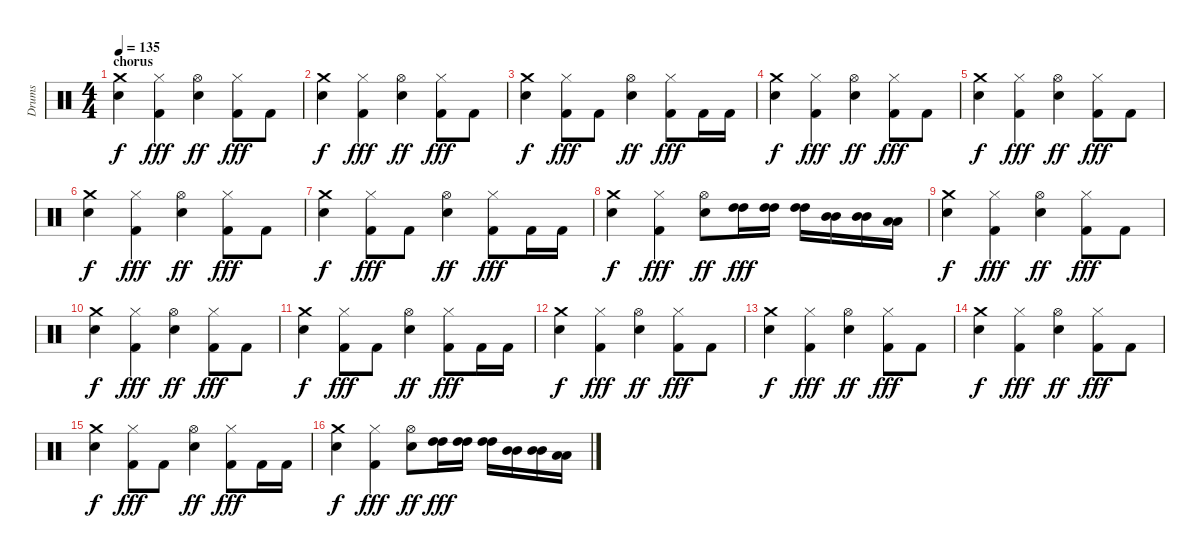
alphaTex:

\track ("Drums" "Drums") {instrument percussion}
\staff {score}
\articulation defaults
\ts (4 4)
\section ("" "chorus")
\tempo 135
\clef neutral
\ks c
("Crash medium (hit)" "Electric Snare (hit)").4{dy f} ("Hi-Hat (closed)" "Kick (hit) 2").4{dy fff} ("Hi-Hat (open)" "Electric Snare (hit)").4{dy ff} ("Hi-Hat (closed)" "Kick (hit) 2").8{dy fff} "Kick (hit) 2".8 |
("Crash medium (hit)" "Electric Snare (hit)").4{dy f} ("Hi-Hat (closed)" "Kick (hit) 2").4{dy fff} ("Hi-Hat (open)" "Electric Snare (hit)").4{dy ff} ("Hi-Hat (closed)" "Kick (hit) 2").8{dy fff} "Kick (hit) 2".8 |
("Crash medium (hit)" "Electric Snare (hit)").4{dy f} ("Hi-Hat (closed)" "Kick (hit) 2").8{dy fff} "Kick (hit) 2".8 ("Hi-Hat (open)" "Electric Snare (hit)").4{dy ff} ("Hi-Hat (closed)" "Kick (hit) 2").8{dy fff} "Kick (hit) 2".16 "Kick (hit) 2".16 |
("Crash medium (hit)" "Electric Snare (hit)").4{dy f} ("Hi-Hat (closed)" "Kick (hit) 2").4{dy fff} ("Hi-Hat (open)" "Electric Snare (hit)").4{dy ff} ("Hi-Hat (closed)" "Kick (hit) 2").8{dy fff} "Kick (hit) 2".8 |
("Crash medium (hit)" "Electric Snare (hit)").4{dy f} ("Hi-Hat (closed)" "Kick (hit) 2").4{dy fff} ("Hi-Hat (open)" "Electric Snare (hit)").4{dy ff} ("Hi-Hat (closed)" "Kick (hit) 2").8{dy fff} "Kick (hit) 2".8 |
("Crash medium (hit)" "Electric Snare (hit)").4{dy f} ("Hi-Hat (closed)" "Kick (hit) 2").4{dy fff} ("Hi-Hat (open)" "Electric Snare (hit)").4{dy ff} ("Hi-Hat (closed)" "Kick (hit) 2").8{dy fff} "Kick (hit) 2".8 |
("Crash medium (hit)" "Electric Snare (hit)").4{dy f} ("Hi-Hat (closed)" "Kick (hit) 2").8{dy fff} "Kick (hit) 2".8 ("Hi-Hat (open)" "Electric Snare (hit)").4{dy ff} ("Hi-Hat (closed)" "Kick (hit) 2").8{dy fff} "Kick (hit) 2".16 "Kick (hit) 2".16 |
("Crash medium (hit)" "Electric Snare (hit)").4{dy f} ("Hi-Hat (closed)" "Kick (hit) 2").4{dy fff} ("Hi-Hat (open)" "Electric Snare (hit)").8{dy ff} ("High Tom (hit)" "High Tom (hit)").16{dy fff} ("High Tom (hit)" "High Tom (hit)").16 ("High Tom (hit)" "High Tom (hit)").16 ("Mid Tom (hit)" "Mid Tom (hit)").16 ("Mid Tom (hit)" "Mid Tom (hit)").16 ("Low Tom (hit)" "Low Tom (hit)").16 |
("Crash medium (hit)" "Electric Snare (hit)").4{dy f} ("Hi-Hat (closed)" "Kick (hit) 2").4{dy fff} ("Hi-Hat (open)" "Electric Snare (hit)").4{dy ff} ("Hi-Hat (closed)" "Kick (hit) 2").8{dy fff} "Kick (hit) 2".8 |
("Crash medium (hit)" "Electric Snare (hit)").4{dy f} ("Hi-Hat (closed)" "Kick (hit) 2").4{dy fff} ("Hi-Hat (open)" "Electric Snare (hit)").4{dy ff} ("Hi-Hat (closed)" "Kick (hit) 2").8{dy fff} "Kick (hit) 2".8 |
("Crash medium (hit)" "Electric Snare (hit)").4{dy f} ("Hi-Hat (closed)" "Kick (hit) 2").8{dy fff} "Kick (hit) 2".8 ("Hi-Hat (open)" "Electric Snare (hit)").4{dy ff} ("Hi-Hat (closed)" "Kick (hit) 2").8{dy fff} "Kick (hit) 2".16 "Kick (hit) 2".16 |
("Crash medium (hit)" "Electric Snare (hit)").4{dy f} ("Hi-Hat (closed)" "Kick (hit) 2").4{dy fff} ("Hi-Hat (open)" "Electric Snare (hit)").4{dy ff} ("Hi-Hat (closed)" "Kick (hit) 2").8{dy fff} "Kick (hit) 2".8 |
("Crash medium (hit)" "Electric Snare (hit)").4{dy f} ("Hi-Hat (closed)" "Kick (hit) 2").4{dy fff} ("Hi-Hat (open)" "Electric Snare (hit)").4{dy ff} ("Hi-Hat (closed)" "Kick (hit) 2").8{dy fff} "Kick (hit) 2".8 |
("Crash medium (hit)" "Electric Snare (hit)").4{dy f} ("Hi-Hat (closed)" "Kick (hit) 2").4{dy fff} ("Hi-Hat (open)" "Electric Snare (hit)").4{dy ff} ("Hi-Hat (closed)" "Kick (hit) 2").8{dy fff} "Kick (hit) 2".8 |
("Crash medium (hit)" "Electric Snare (hit)").4{dy f} ("Hi-Hat (closed)" "Kick (hit) 2").8{dy fff} "Kick (hit) 2".8 ("Hi-Hat (open)" "Electric Snare (hit)").4{dy ff} ("Hi-Hat (closed)" "Kick (hit) 2").8{dy fff} "Kick (hit) 2".16 "Kick (hit) 2".16 |
("Crash medium (hit)" "Electric Snare (hit)").4{dy f} ("Hi-Hat (closed)" "Kick (hit) 2").4{dy fff} ("Hi-Hat (open)" "Electric Snare (hit)").8{dy ff} ("High Tom (hit)" "High Tom (hit)").16{dy fff} ("High Tom (hit)" "High Tom (hit)").16 ("High Tom (hit)" "High Tom (hit)").16 ("Mid Tom (hit)" "Mid Tom (hit)").16 ("Mid Tom (hit)" "Mid Tom (hit)").16 ("Low Tom (hit)" "Low Tom (hit)").16
